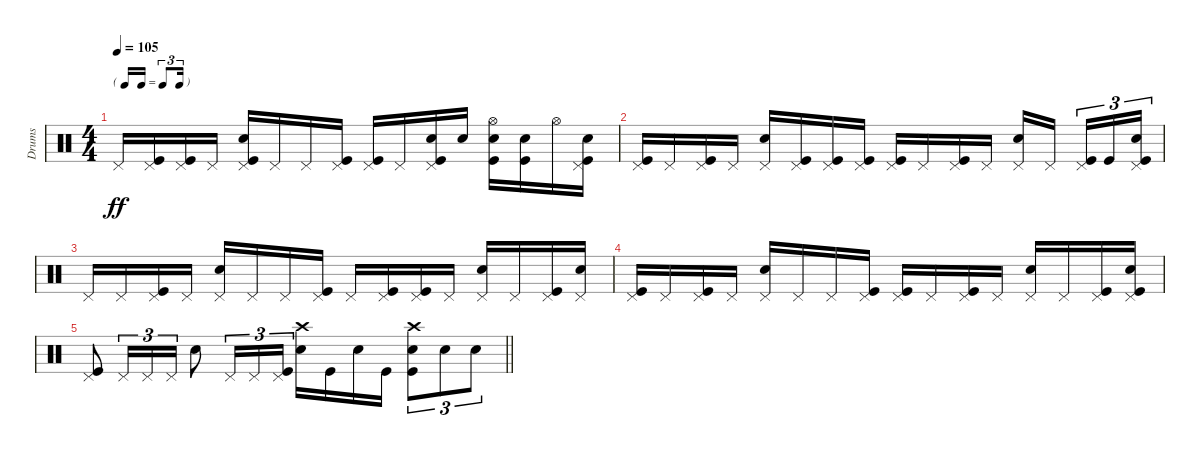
\track ("Drums" "Drums") {instrument percussion}
\staff {score}
\articulation defaults
\ts (4 4)
\tf triplet16th
\tempo 105
\clef neutral
\ks c "Pedal Hi-Hat (hit)".16{dy ff}
("Pedal Hi-Hat (hit)" "Kick (hit)").16 ("Pedal Hi-Hat (hit)" "Kick (hit)").16 "Pedal Hi-Hat (hit)".16 ("Pedal Hi-Hat (hit)" "Snare (hit) 2" "Kick (hit)").16 "Pedal Hi-Hat (hit)".16 "Pedal Hi-Hat (hit)".16 ("Pedal Hi-Hat (hit)" "Kick (hit)").16 ("Pedal Hi-Hat (hit)" "Kick (hit)").16 "Pedal Hi-Hat (hit)".16 ("Pedal Hi-Hat (hit)" "Snare (hit) 2" "Kick (hit)").16 "Snare (hit) 2".16 ("Hi-Hat (open)" "Snare (hit) 2" "Kick (hit)").16 ("Snare (hit) 2" "Kick (hit)").16 "Hi-Hat (open)".16 ("Pedal Hi-Hat (hit)" "Snare (hit) 2" "Kick (hit)").16 |
("Pedal Hi-Hat (hit)" "Kick (hit)").16 "Pedal Hi-Hat (hit)".16 ("Pedal Hi-Hat (hit)" "Kick (hit)").16 "Pedal Hi-Hat (hit)".16 ("Pedal Hi-Hat (hit)" "Snare (hit) 2").16 ("Pedal Hi-Hat (hit)" "Kick (hit)").16 ("Pedal Hi-Hat (hit)" "Kick (hit)").16 ("Pedal Hi-Hat (hit)" "Kick (hit)").16 ("Pedal Hi-Hat (hit)" "Kick (hit)").16 "Pedal Hi-Hat (hit)".16 ("Pedal Hi-Hat (hit)" "Kick (hit)").16 "Pedal Hi-Hat (hit)".16 ("Pedal Hi-Hat (hit)" "Snare (hit) 2").16 "Pedal Hi-Hat (hit)".16{beam splitsecondary} ("Pedal Hi-Hat (hit)" "Kick (hit)").16{tu (3 2)} "Kick (hit)".16{tu (3 2)} ("Pedal Hi-Hat (hit)" "Snare (hit) 2" "Kick (hit)").16{tu (3 2)} |
"Pedal Hi-Hat (hit)".16 "Pedal Hi-Hat (hit)".16 ("Pedal Hi-Hat (hit)" "Kick (hit)").16 "Pedal Hi-Hat (hit)".16 ("Pedal Hi-Hat (hit)" "Snare (hit) 2").16 "Pedal Hi-Hat (hit)".16 "Pedal Hi-Hat (hit)".16 ("Pedal Hi-Hat (hit)" "Kick (hit)").16 "Pedal Hi-Hat (hit)".16 ("Pedal Hi-Hat (hit)" "Kick (hit)").16 ("Pedal Hi-Hat (hit)" "Kick (hit)").16 "Pedal Hi-Hat (hit)".16 ("Pedal Hi-Hat (hit)" "Snare (hit) 2").16 "Pedal Hi-Hat (hit)".16 ("Pedal Hi-Hat (hit)" "Kick (hit)").16 ("Pedal Hi-Hat (hit)" "Snare (hit) 2").16 |
("Pedal Hi-Hat (hit)" "Kick (hit)").16 "Pedal Hi-Hat (hit)".16 ("Pedal Hi-Hat (hit)" "Kick (hit)").16 "Pedal Hi-Hat (hit)".16 ("Pedal Hi-Hat (hit)" "Snare (hit) 2").16 "Pedal Hi-Hat (hit)".16 "Pedal Hi-Hat (hit)".16 ("Pedal Hi-Hat (hit)" "Kick (hit)").16 ("Pedal Hi-Hat (hit)" "Kick (hit)").16 "Pedal Hi-Hat (hit)".16 ("Pedal Hi-Hat (hit)" "Kick (hit)").16 "Pedal Hi-Hat (hit)".16 ("Pedal Hi-Hat (hit)" "Snare (hit) 2").16 "Pedal Hi-Hat (hit)".16 ("Pedal Hi-Hat (hit)" "Kick (hit)").16 ("Pedal Hi-Hat (hit)" "Snare (hit) 2" "Kick (hit)").16 |
\barLineRight lightlight
("Pedal Hi-Hat (hit)" "Kick (hit)").8 "Pedal Hi-Hat (hit)".16{tu (3 2)} "Pedal Hi-Hat (hit)".16{tu (3 2)} "Pedal Hi-Hat (hit)".16{tu (3 2)} "Snare (hit) 2".8 "Pedal Hi-Hat (hit)".16{tu (3 2)} "Pedal Hi-Hat (hit)".16{tu (3 2)} ("Pedal Hi-Hat (hit)" "Kick (hit)").16{tu (3 2)} ("Crash high (hit)" "Snare (hit) 2").16 "Kick (hit)".16 "Snare (hit) 2".16 "Kick (hit)".16 ("Crash high (hit)" "Snare (hit) 2" "Kick (hit)").8{tu (3 2)} "Snare (hit) 2".8{tu (3 2)} "Snare (hit) 2".8{tu (3 2)}
